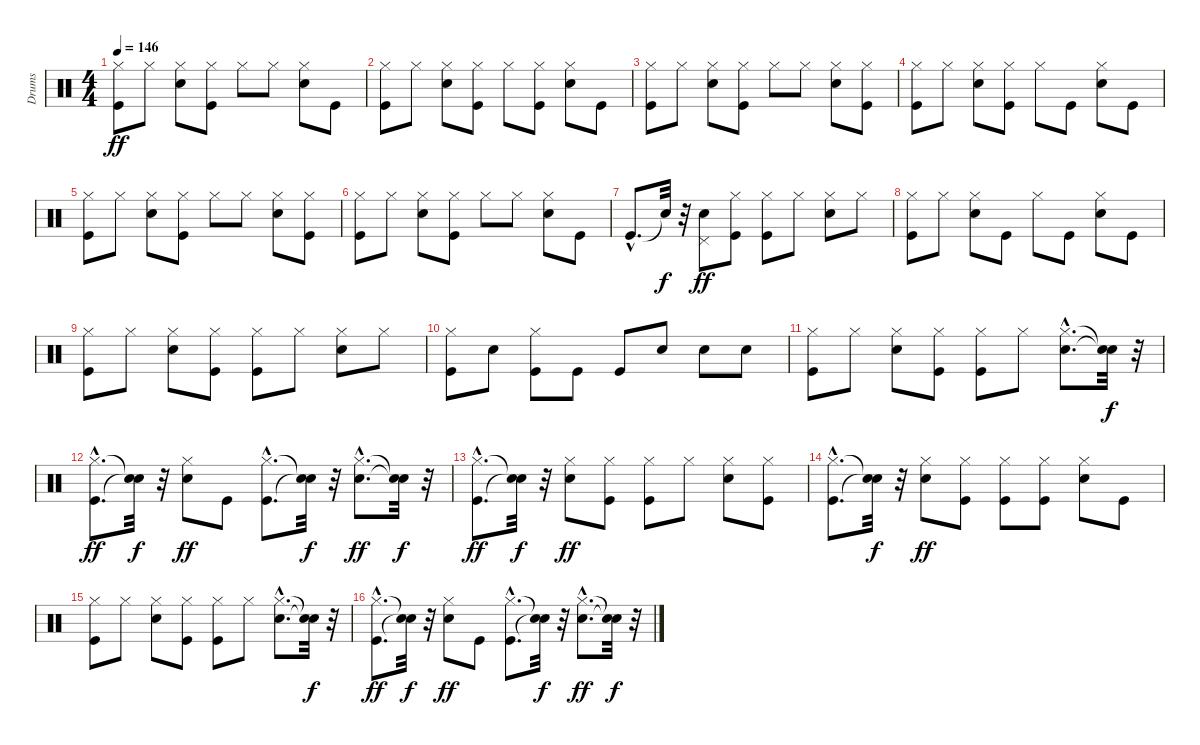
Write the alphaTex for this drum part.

\track ("Drums" "Drums") {instrument percussion}
\staff {score}
\articulation defaults
\ts (4 4)
\tempo 146
\clef neutral
\ks c
("Kick (hit)" "Hi-Hat (closed)").8{dy ff} "Hi-Hat (closed)".8 ("Snare (hit) 2" "Hi-Hat (closed)").8 ("Kick (hit)" "Hi-Hat (closed)").8 "Hi-Hat (closed)".8 "Hi-Hat (closed)".8 ("Snare (hit) 2" "Hi-Hat (closed)").8 "Kick (hit)".8 |
("Kick (hit)" "Hi-Hat (closed)").8 "Hi-Hat (closed)".8 ("Snare (hit) 2" "Hi-Hat (closed)").8 ("Kick (hit)" "Hi-Hat (closed)").8 "Hi-Hat (closed)".8 ("Kick (hit)" "Hi-Hat (closed)").8 ("Snare (hit) 2" "Hi-Hat (closed)").8 "Kick (hit)".8 |
("Kick (hit)" "Hi-Hat (closed)").8 "Hi-Hat (closed)".8 ("Snare (hit) 2" "Hi-Hat (closed)").8 ("Kick (hit)" "Hi-Hat (closed)").8 "Hi-Hat (closed)".8 "Hi-Hat (closed)".8 ("Snare (hit) 2" "Hi-Hat (closed)").8 ("Kick (hit)" "Hi-Hat (closed)").8 |
("Kick (hit)" "Hi-Hat (closed)").8 "Hi-Hat (closed)".8 ("Snare (hit) 2" "Hi-Hat (closed)").8 ("Kick (hit)" "Hi-Hat (closed)").8 "Hi-Hat (closed)".8 "Kick (hit)".8 ("Snare (hit) 2" "Hi-Hat (closed)").8 "Kick (hit)".8 |
("Kick (hit)" "Hi-Hat (closed)").8 "Hi-Hat (closed)".8 ("Snare (hit) 2" "Hi-Hat (closed)").8 ("Kick (hit)" "Hi-Hat (closed)").8 "Hi-Hat (closed)".8 "Hi-Hat (closed)".8 ("Snare (hit) 2" "Hi-Hat (closed)").8 ("Kick (hit)" "Hi-Hat (closed)").8 |
("Kick (hit)" "Hi-Hat (closed)").8 "Hi-Hat (closed)".8 ("Snare (hit) 2" "Hi-Hat (closed)").8 ("Kick (hit)" "Hi-Hat (closed)").8 "Hi-Hat (closed)".8 "Hi-Hat (closed)".8 ("Snare (hit) 2" "Hi-Hat (closed)").8 "Kick (hit)".8 |
"Kick (hit)"{hac}.8{d} "Snare (hit)"{t}.32{dy f} r.32 ("Snare (hit) 2" "Pedal Hi-Hat (hit)").8{dy ff} ("Kick (hit)" "Hi-Hat (closed)").8 ("Kick (hit)" "Hi-Hat (closed)").8 "Hi-Hat (closed)".8 ("Snare (hit) 2" "Hi-Hat (closed)").8 "Hi-Hat (closed)".8 |
("Kick (hit)" "Hi-Hat (closed)").8 "Hi-Hat (closed)".8 ("Snare (hit) 2" "Hi-Hat (closed)").8 "Kick (hit)".8 "Hi-Hat (closed)".8 "Kick (hit)".8 ("Snare (hit) 2" "Hi-Hat (closed)").8 "Kick (hit)".8 |
("Kick (hit)" "Hi-Hat (closed)").8 "Hi-Hat (closed)".8 ("Snare (hit) 2" "Hi-Hat (closed)").8 ("Kick (hit)" "Hi-Hat (closed)").8 ("Kick (hit)" "Hi-Hat (closed)").8 "Hi-Hat (closed)".8 ("Snare (hit) 2" "Hi-Hat (closed)").8 "Hi-Hat (closed)".8 |
("Kick (hit)" "Hi-Hat (closed)").8 "Snare (hit) 2".8 ("Kick (hit)" "Hi-Hat (closed)").8 "Kick (hit)".8 "Kick (hit)".8 "Snare (hit) 2".8 "Snare (hit) 2".8 "Snare (hit) 2".8 |
("Kick (hit)" "Hi-Hat (closed)").8 "Hi-Hat (closed)".8 ("Snare (hit) 2" "Hi-Hat (closed)").8 ("Kick (hit)" "Hi-Hat (closed)").8 ("Kick (hit)" "Hi-Hat (closed)").8 "Hi-Hat (closed)".8 ("Snare (hit) 2"{hac} "Hi-Hat (closed)"{hac}).8{d} ("Snare (hit)"{t} "Snare (hit)"{t}).32{dy f} r.32 |
("Kick (hit)"{hac} "Hi-Hat (closed)"{hac}).8{d dy ff} ("Snare (hit)"{t} "Snare (hit)"{t}).32{dy f} r.32 ("Snare (hit) 2" "Hi-Hat (closed)").8{dy ff} "Kick (hit)".8 ("Kick (hit)"{hac} "Hi-Hat (closed)"{hac}).8{d} ("Snare (hit)"{t} "Snare (hit)"{t}).32{dy f} r.32 ("Snare (hit) 2"{hac} "Hi-Hat (closed)"{hac}).8{d dy ff} ("Snare (hit)"{t} "Snare (hit)"{t}).32{dy f} r.32 |
("Kick (hit)"{hac} "Hi-Hat (closed)"{hac}).8{d dy ff} ("Snare (hit)"{t} "Snare (hit)"{t}).32{dy f} r.32 ("Snare (hit) 2" "Hi-Hat (closed)").8{dy ff} ("Kick (hit)" "Hi-Hat (closed)").8 ("Kick (hit)" "Hi-Hat (closed)").8 "Hi-Hat (closed)".8 ("Snare (hit) 2" "Hi-Hat (closed)").8 ("Kick (hit)" "Hi-Hat (closed)").8 |
("Kick (hit)"{hac} "Hi-Hat (closed)"{hac}).8{d} ("Snare (hit)"{t} "Snare (hit)"{t}).32{dy f} r.32 ("Snare (hit) 2" "Hi-Hat (closed)").8{dy ff} ("Kick (hit)" "Hi-Hat (closed)").8 ("Kick (hit)" "Hi-Hat (closed)").8 ("Kick (hit)" "Hi-Hat (closed)").8 ("Snare (hit) 2" "Hi-Hat (closed)").8 "Kick (hit)".8 |
("Kick (hit)" "Hi-Hat (closed)").8 "Hi-Hat (closed)".8 ("Snare (hit) 2" "Hi-Hat (closed)").8 ("Kick (hit)" "Hi-Hat (closed)").8 ("Kick (hit)" "Hi-Hat (closed)").8 "Hi-Hat (closed)".8 ("Snare (hit) 2"{hac} "Hi-Hat (closed)"{hac}).8{d} ("Snare (hit)"{t} "Snare (hit)"{t}).32{dy f} r.32 |
("Kick (hit)"{hac} "Hi-Hat (closed)"{hac}).8{d dy ff} ("Snare (hit)"{t} "Snare (hit)"{t}).32{dy f} r.32 ("Snare (hit) 2" "Hi-Hat (closed)").8{dy ff} "Kick (hit)".8 ("Kick (hit)"{hac} "Hi-Hat (closed)"{hac}).8{d} ("Snare (hit)"{t} "Snare (hit)"{t}).32{dy f} r.32 ("Snare (hit) 2"{hac} "Hi-Hat (closed)"{hac}).8{d dy ff} ("Snare (hit)"{t} "Snare (hit)"{t}).32{dy f} r.32
